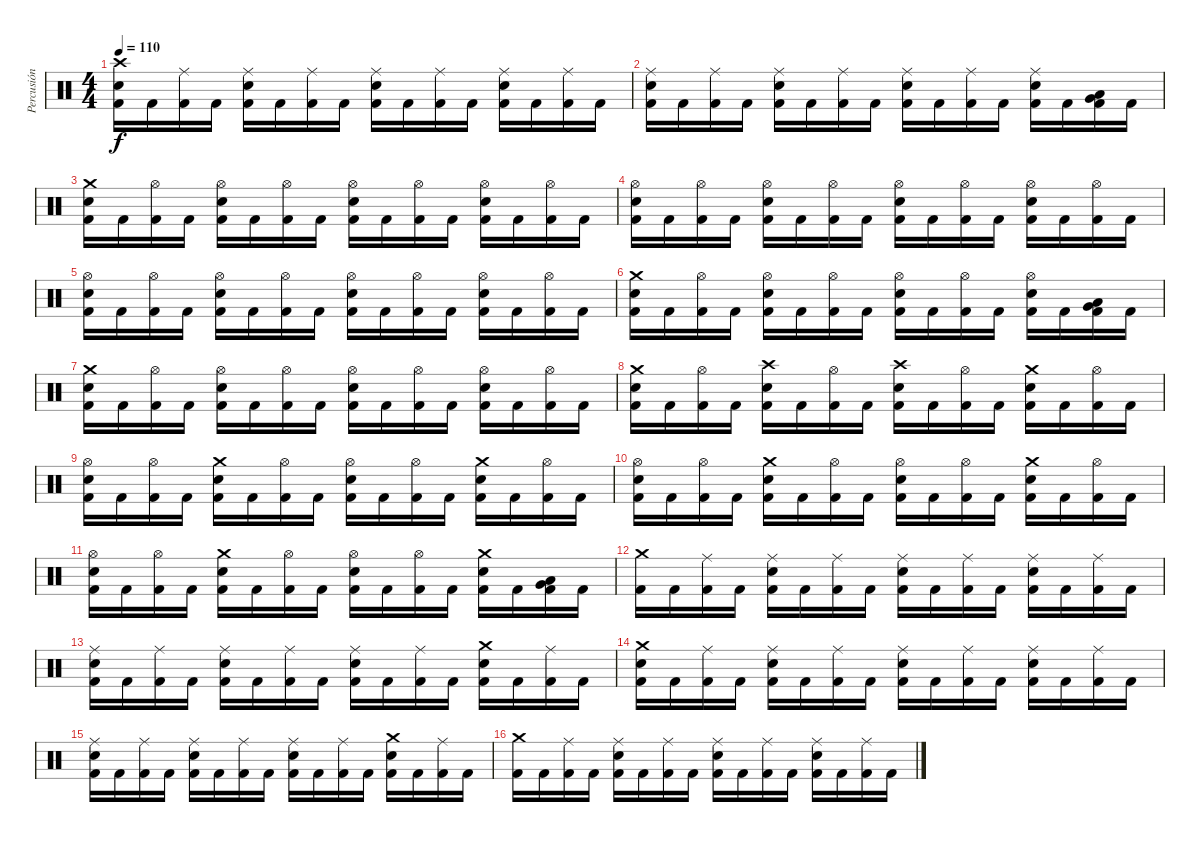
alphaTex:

\track ("Percusión" "Percusión") {instrument percussion}
\staff {score}
\articulation defaults
\ts (4 4)
\tempo 110
\clef neutral
\ks c
("Electric Snare (hit)" "Crash high (hit)" "Kick (hit) 2").16{dy f} "Kick (hit) 2".16 ("Ride (middle)" "Kick (hit) 2").16 "Kick (hit) 2".16 ("Electric Snare (hit)" "Ride (middle)" "Kick (hit) 2").16 "Kick (hit) 2".16 ("Ride (middle)" "Kick (hit) 2").16 "Kick (hit) 2".16 ("Electric Snare (hit)" "Ride (middle)" "Kick (hit) 2").16 "Kick (hit) 2".16 ("Ride (middle)" "Kick (hit) 2").16 "Kick (hit) 2".16 ("Electric Snare (hit)" "Ride (middle)" "Kick (hit) 2").16 "Kick (hit) 2".16 ("Ride (middle)" "Kick (hit) 2").16 "Kick (hit) 2".16 |
("Electric Snare (hit)" "Ride (middle)" "Kick (hit) 2").16 "Kick (hit) 2".16 ("Ride (middle)" "Kick (hit) 2").16 "Kick (hit) 2".16 ("Electric Snare (hit)" "Ride (middle)" "Kick (hit) 2").16 "Kick (hit) 2".16 ("Ride (middle)" "Kick (hit) 2").16 "Kick (hit) 2".16 ("Electric Snare (hit)" "Ride (middle)" "Kick (hit) 2").16 "Kick (hit) 2".16 ("Ride (middle)" "Kick (hit) 2").16 "Kick (hit) 2".16 ("Electric Snare (hit)" "Ride (middle)" "Kick (hit) 2").16 "Kick (hit) 2".16 ("Very Low Tom (hit)" "Low Tom (hit)" "Kick (hit) 2").16 "Kick (hit) 2".16 |
("Electric Snare (hit)" "Crash medium (hit)" "Kick (hit) 2").16 "Kick (hit) 2".16 ("Hi-Hat (open)" "Kick (hit) 2").16 "Kick (hit) 2".16 ("Electric Snare (hit)" "Hi-Hat (open)" "Kick (hit) 2").16 "Kick (hit) 2".16 ("Hi-Hat (open)" "Kick (hit) 2").16 "Kick (hit) 2".16 ("Electric Snare (hit)" "Hi-Hat (open)" "Kick (hit) 2").16 "Kick (hit) 2".16 ("Hi-Hat (open)" "Kick (hit) 2").16 "Kick (hit) 2".16 ("Electric Snare (hit)" "Hi-Hat (open)" "Kick (hit) 2").16 "Kick (hit) 2".16 ("Hi-Hat (open)" "Kick (hit) 2").16 "Kick (hit) 2".16 |
("Electric Snare (hit)" "Hi-Hat (open)" "Kick (hit) 2").16 "Kick (hit) 2".16 ("Hi-Hat (open)" "Kick (hit) 2").16 "Kick (hit) 2".16 ("Electric Snare (hit)" "Hi-Hat (open)" "Kick (hit) 2").16 "Kick (hit) 2".16 ("Hi-Hat (open)" "Kick (hit) 2").16 "Kick (hit) 2".16 ("Electric Snare (hit)" "Hi-Hat (open)" "Kick (hit) 2").16 "Kick (hit) 2".16 ("Hi-Hat (open)" "Kick (hit) 2").16 "Kick (hit) 2".16 ("Electric Snare (hit)" "Hi-Hat (open)" "Kick (hit) 2").16 "Kick (hit) 2".16 ("Hi-Hat (open)" "Kick (hit) 2").16 "Kick (hit) 2".16 |
("Electric Snare (hit)" "Hi-Hat (open)" "Kick (hit) 2").16 "Kick (hit) 2".16 ("Hi-Hat (open)" "Kick (hit) 2").16 "Kick (hit) 2".16 ("Electric Snare (hit)" "Hi-Hat (open)" "Kick (hit) 2").16 "Kick (hit) 2".16 ("Hi-Hat (open)" "Kick (hit) 2").16 "Kick (hit) 2".16 ("Electric Snare (hit)" "Hi-Hat (open)" "Kick (hit) 2").16 "Kick (hit) 2".16 ("Hi-Hat (open)" "Kick (hit) 2").16 "Kick (hit) 2".16 ("Electric Snare (hit)" "Hi-Hat (open)" "Kick (hit) 2").16 "Kick (hit) 2".16 ("Hi-Hat (open)" "Kick (hit) 2").16 "Kick (hit) 2".16 |
("Electric Snare (hit)" "Crash medium (hit)" "Kick (hit) 2").16 "Kick (hit) 2".16 ("Hi-Hat (open)" "Kick (hit) 2").16 "Kick (hit) 2".16 ("Electric Snare (hit)" "Hi-Hat (open)" "Kick (hit) 2").16 "Kick (hit) 2".16 ("Hi-Hat (open)" "Kick (hit) 2").16 "Kick (hit) 2".16 ("Electric Snare (hit)" "Hi-Hat (open)" "Kick (hit) 2").16 "Kick (hit) 2".16 ("Hi-Hat (open)" "Kick (hit) 2").16 "Kick (hit) 2".16 ("Electric Snare (hit)" "Hi-Hat (open)" "Kick (hit) 2").16 "Kick (hit) 2".16 ("Low Tom (hit)" "Very Low Tom (hit)" "Kick (hit) 2").16 "Kick (hit) 2".16 |
("Electric Snare (hit)" "Crash medium (hit)" "Kick (hit) 2").16 "Kick (hit) 2".16 ("Hi-Hat (open)" "Kick (hit) 2").16 "Kick (hit) 2".16 ("Electric Snare (hit)" "Hi-Hat (open)" "Kick (hit) 2").16 "Kick (hit) 2".16 ("Hi-Hat (open)" "Kick (hit) 2").16 "Kick (hit) 2".16 ("Electric Snare (hit)" "Hi-Hat (open)" "Kick (hit) 2").16 "Kick (hit) 2".16 ("Hi-Hat (open)" "Kick (hit) 2").16 "Kick (hit) 2".16 ("Electric Snare (hit)" "Hi-Hat (open)" "Kick (hit) 2").16 "Kick (hit) 2".16 ("Hi-Hat (open)" "Kick (hit) 2").16 "Kick (hit) 2".16 |
("Electric Snare (hit)" "Crash medium (hit)" "Kick (hit) 2").16 "Kick (hit) 2".16 ("Hi-Hat (open)" "Kick (hit) 2").16 "Kick (hit) 2".16 ("Electric Snare (hit)" "Crash high (hit)" "Kick (hit) 2").16 "Kick (hit) 2".16 ("Hi-Hat (open)" "Kick (hit) 2").16 "Kick (hit) 2".16 ("Electric Snare (hit)" "Crash high (hit)" "Kick (hit) 2").16 "Kick (hit) 2".16 ("Hi-Hat (open)" "Kick (hit) 2").16 "Kick (hit) 2".16 ("Electric Snare (hit)" "Crash medium (hit)" "Kick (hit) 2").16 "Kick (hit) 2".16 ("Hi-Hat (open)" "Kick (hit) 2").16 "Kick (hit) 2".16 |
("Electric Snare (hit)" "Hi-Hat (open)" "Kick (hit) 2").16 "Kick (hit) 2".16 ("Hi-Hat (open)" "Kick (hit) 2").16 "Kick (hit) 2".16 ("Electric Snare (hit)" "Crash medium (hit)" "Kick (hit) 2").16 "Kick (hit) 2".16 ("Hi-Hat (open)" "Kick (hit) 2").16 "Kick (hit) 2".16 ("Electric Snare (hit)" "Hi-Hat (open)" "Kick (hit) 2").16 "Kick (hit) 2".16 ("Hi-Hat (open)" "Kick (hit) 2").16 "Kick (hit) 2".16 ("Electric Snare (hit)" "Crash medium (hit)" "Kick (hit) 2").16 "Kick (hit) 2".16 ("Hi-Hat (open)" "Kick (hit) 2").16 "Kick (hit) 2".16 |
("Electric Snare (hit)" "Hi-Hat (open)" "Kick (hit) 2").16 "Kick (hit) 2".16 ("Hi-Hat (open)" "Kick (hit) 2").16 "Kick (hit) 2".16 ("Electric Snare (hit)" "Crash medium (hit)" "Kick (hit) 2").16 "Kick (hit) 2".16 ("Hi-Hat (open)" "Kick (hit) 2").16 "Kick (hit) 2".16 ("Electric Snare (hit)" "Hi-Hat (open)" "Kick (hit) 2").16 "Kick (hit) 2".16 ("Hi-Hat (open)" "Kick (hit) 2").16 "Kick (hit) 2".16 ("Electric Snare (hit)" "Crash medium (hit)" "Kick (hit) 2").16 "Kick (hit) 2".16 ("Hi-Hat (open)" "Kick (hit) 2").16 "Kick (hit) 2".16 |
("Electric Snare (hit)" "Hi-Hat (open)" "Kick (hit) 2").16 "Kick (hit) 2".16 ("Hi-Hat (open)" "Kick (hit) 2").16 "Kick (hit) 2".16 ("Electric Snare (hit)" "Crash medium (hit)" "Kick (hit) 2").16 "Kick (hit) 2".16 ("Hi-Hat (open)" "Kick (hit) 2").16 "Kick (hit) 2".16 ("Electric Snare (hit)" "Hi-Hat (open)" "Kick (hit) 2").16 "Kick (hit) 2".16 ("Hi-Hat (open)" "Kick (hit) 2").16 "Kick (hit) 2".16 ("Electric Snare (hit)" "Crash medium (hit)" "Kick (hit) 2").16 "Kick (hit) 2".16 ("Very Low Tom (hit)" "Low Tom (hit)" "Kick (hit) 2").16 "Kick (hit) 2".16 |
("Crash medium (hit)" "Kick (hit) 2").16 "Kick (hit) 2".16 ("Ride (middle)" "Kick (hit) 2").16 "Kick (hit) 2".16 ("Electric Snare (hit)" "Ride (middle)" "Kick (hit) 2").16 "Kick (hit) 2".16 ("Ride (middle)" "Kick (hit) 2").16 "Kick (hit) 2".16 ("Electric Snare (hit)" "Ride (middle)" "Kick (hit) 2").16 "Kick (hit) 2".16 ("Ride (middle)" "Kick (hit) 2").16 "Kick (hit) 2".16 ("Electric Snare (hit)" "Ride (middle)" "Kick (hit) 2").16 "Kick (hit) 2".16 ("Ride (middle)" "Kick (hit) 2").16 "Kick (hit) 2".16 |
("Electric Snare (hit)" "Ride (middle)" "Kick (hit) 2").16 "Kick (hit) 2".16 ("Ride (middle)" "Kick (hit) 2").16 "Kick (hit) 2".16 ("Electric Snare (hit)" "Ride (middle)" "Kick (hit) 2").16 "Kick (hit) 2".16 ("Ride (middle)" "Kick (hit) 2").16 "Kick (hit) 2".16 ("Electric Snare (hit)" "Ride (middle)" "Kick (hit) 2").16 "Kick (hit) 2".16 ("Ride (middle)" "Kick (hit) 2").16 "Kick (hit) 2".16 ("Electric Snare (hit)" "Crash medium (hit)" "Kick (hit) 2").16 "Kick (hit) 2".16 ("Ride (middle)" "Kick (hit) 2").16 "Kick (hit) 2".16 |
("Crash medium (hit)" "Electric Snare (hit)" "Kick (hit) 2").16 "Kick (hit) 2".16 ("Ride (middle)" "Kick (hit) 2").16 "Kick (hit) 2".16 ("Electric Snare (hit)" "Ride (middle)" "Kick (hit) 2").16 "Kick (hit) 2".16 ("Ride (middle)" "Kick (hit) 2").16 "Kick (hit) 2".16 ("Electric Snare (hit)" "Ride (middle)" "Kick (hit) 2").16 "Kick (hit) 2".16 ("Ride (middle)" "Kick (hit) 2").16 "Kick (hit) 2".16 ("Electric Snare (hit)" "Ride (middle)" "Kick (hit) 2").16 "Kick (hit) 2".16 ("Ride (middle)" "Kick (hit) 2").16 "Kick (hit) 2".16 |
("Electric Snare (hit)" "Ride (middle)" "Kick (hit) 2").16 "Kick (hit) 2".16 ("Ride (middle)" "Kick (hit) 2").16 "Kick (hit) 2".16 ("Electric Snare (hit)" "Ride (middle)" "Kick (hit) 2").16 "Kick (hit) 2".16 ("Ride (middle)" "Kick (hit) 2").16 "Kick (hit) 2".16 ("Electric Snare (hit)" "Ride (middle)" "Kick (hit) 2").16 "Kick (hit) 2".16 ("Ride (middle)" "Kick (hit) 2").16 "Kick (hit) 2".16 ("Electric Snare (hit)" "Crash medium (hit)" "Kick (hit) 2").16 "Kick (hit) 2".16 ("Ride (middle)" "Kick (hit) 2").16 "Kick (hit) 2".16 |
("Crash medium (hit)" "Kick (hit) 2").16 "Kick (hit) 2".16 ("Ride (middle)" "Kick (hit) 2").16 "Kick (hit) 2".16 ("Electric Snare (hit)" "Ride (middle)" "Kick (hit) 2").16 "Kick (hit) 2".16 ("Ride (middle)" "Kick (hit) 2").16 "Kick (hit) 2".16 ("Electric Snare (hit)" "Ride (middle)" "Kick (hit) 2").16 "Kick (hit) 2".16 ("Ride (middle)" "Kick (hit) 2").16 "Kick (hit) 2".16 ("Electric Snare (hit)" "Ride (middle)" "Kick (hit) 2").16 "Kick (hit) 2".16 ("Ride (middle)" "Kick (hit) 2").16 "Kick (hit) 2".16
